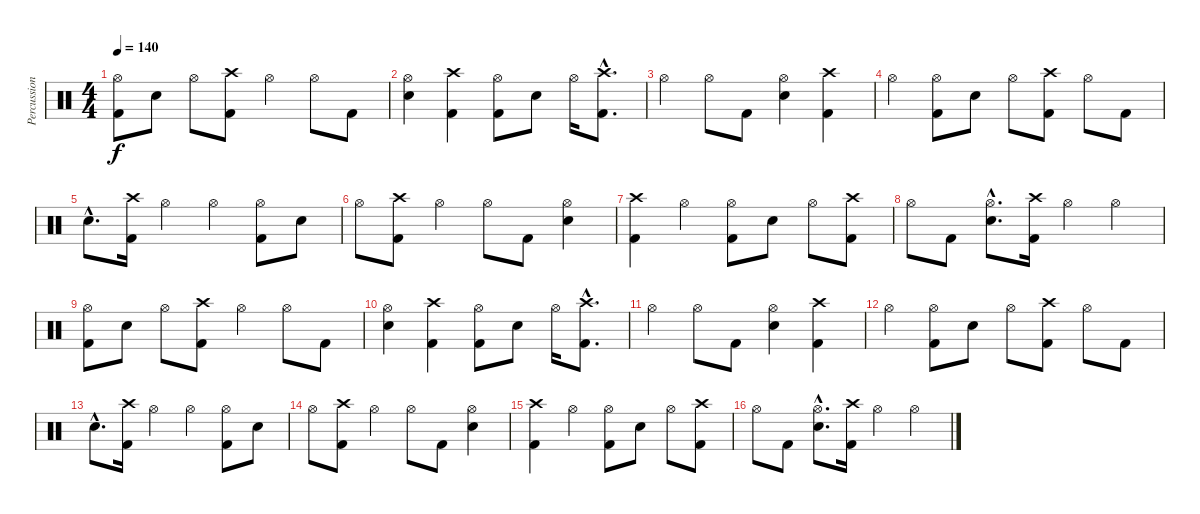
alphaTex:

\track ("Percussion" "Percussion") {instrument percussion}
\staff {score}
\articulation defaults
\ts (4 4)
\tempo 140
\clef neutral
\ks c
("Hi-Hat (open)" "Kick (hit) 2").8{dy f} "Electric Snare (hit)".8 "Hi-Hat (open)".8 ("Crash high (hit)" "Kick (hit) 2").8 "Hi-Hat (open)".4 "Hi-Hat (open)".8 "Kick (hit) 2".8 |
("Hi-Hat (open)" "Electric Snare (hit)").4 ("Crash high (hit)" "Kick (hit) 2").4 ("Hi-Hat (open)" "Kick (hit) 2").8 "Electric Snare (hit)".8 "Hi-Hat (open)".16 ("Crash high (hit)"{hac} "Kick (hit) 2"{hac}).8{d} |
"Hi-Hat (open)".4 "Hi-Hat (open)".8 "Kick (hit) 2".8 ("Hi-Hat (open)" "Electric Snare (hit)").4 ("Crash high (hit)" "Kick (hit) 2").4 |
"Hi-Hat (open)".4 ("Hi-Hat (open)" "Kick (hit) 2").8 "Electric Snare (hit)".8 "Hi-Hat (open)".8 ("Crash high (hit)" "Kick (hit) 2").8 "Hi-Hat (open)".8 "Kick (hit) 2".8 |
"Electric Snare (hit)"{hac}.8{d} ("Crash high (hit)" "Kick (hit) 2").16 "Hi-Hat (open)".4 "Hi-Hat (open)".4 ("Hi-Hat (open)" "Kick (hit) 2").8 "Electric Snare (hit)".8 |
"Hi-Hat (open)".8 ("Crash high (hit)" "Kick (hit) 2").8 "Hi-Hat (open)".4 "Hi-Hat (open)".8 "Kick (hit) 2".8 ("Hi-Hat (open)" "Electric Snare (hit)").4 |
("Crash high (hit)" "Kick (hit) 2").4 "Hi-Hat (open)".4 ("Hi-Hat (open)" "Kick (hit) 2").8 "Electric Snare (hit)".8 "Hi-Hat (open)".8 ("Crash high (hit)" "Kick (hit) 2").8 |
"Hi-Hat (open)".8 "Kick (hit) 2".8 ("Hi-Hat (open)"{hac} "Electric Snare (hit)"{hac}).8{d} ("Crash high (hit)" "Kick (hit) 2").16 "Hi-Hat (open)".4 "Hi-Hat (open)".4 |
("Hi-Hat (open)" "Kick (hit) 2").8 "Electric Snare (hit)".8 "Hi-Hat (open)".8 ("Crash high (hit)" "Kick (hit) 2").8 "Hi-Hat (open)".4 "Hi-Hat (open)".8 "Kick (hit) 2".8 |
("Hi-Hat (open)" "Electric Snare (hit)").4 ("Crash high (hit)" "Kick (hit) 2").4 ("Hi-Hat (open)" "Kick (hit) 2").8 "Electric Snare (hit)".8 "Hi-Hat (open)".16 ("Crash high (hit)"{hac} "Kick (hit) 2"{hac}).8{d} |
"Hi-Hat (open)".4 "Hi-Hat (open)".8 "Kick (hit) 2".8 ("Hi-Hat (open)" "Electric Snare (hit)").4 ("Crash high (hit)" "Kick (hit) 2").4 |
"Hi-Hat (open)".4 ("Hi-Hat (open)" "Kick (hit) 2").8 "Electric Snare (hit)".8 "Hi-Hat (open)".8 ("Crash high (hit)" "Kick (hit) 2").8 "Hi-Hat (open)".8 "Kick (hit) 2".8 |
"Electric Snare (hit)"{hac}.8{d} ("Crash high (hit)" "Kick (hit) 2").16 "Hi-Hat (open)".4 "Hi-Hat (open)".4 ("Hi-Hat (open)" "Kick (hit) 2").8 "Electric Snare (hit)".8 |
"Hi-Hat (open)".8 ("Crash high (hit)" "Kick (hit) 2").8 "Hi-Hat (open)".4 "Hi-Hat (open)".8 "Kick (hit) 2".8 ("Hi-Hat (open)" "Electric Snare (hit)").4 |
("Crash high (hit)" "Kick (hit) 2").4 "Hi-Hat (open)".4 ("Hi-Hat (open)" "Kick (hit) 2").8 "Electric Snare (hit)".8 "Hi-Hat (open)".8 ("Crash high (hit)" "Kick (hit) 2").8 |
"Hi-Hat (open)".8 "Kick (hit) 2".8 ("Hi-Hat (open)"{hac} "Electric Snare (hit)"{hac}).8{d} ("Crash high (hit)" "Kick (hit) 2").16 "Hi-Hat (open)".4 "Hi-Hat (open)".4
